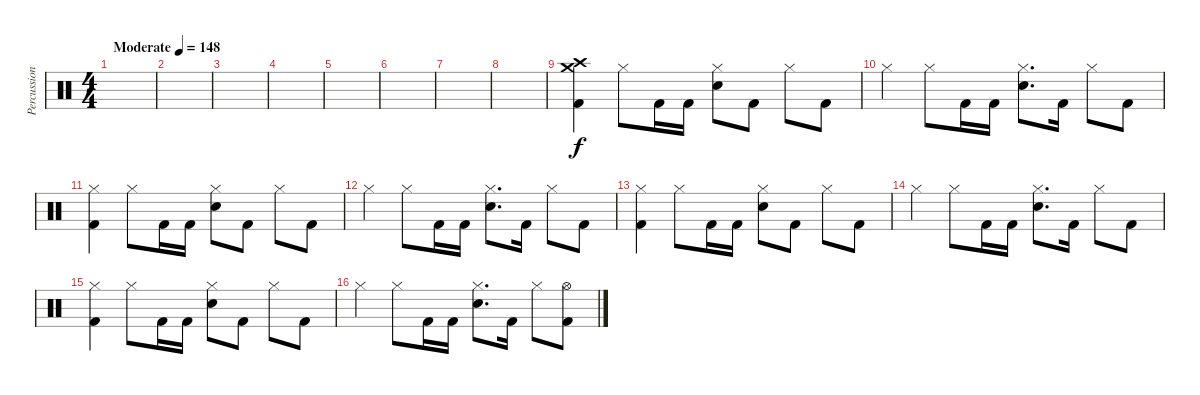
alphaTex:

\track ("Percussion" "Percussion") {instrument percussion}
\staff {score}
\articulation defaults
\ts (4 4)
\tempo (148 "Moderate")
\clef neutral
\ks c
|
|
|
|
|
|
|
|
("Crash high (hit)" "Crash medium (hit)" "Kick (hit) 2").4 "Hi-Hat (closed)".8 "Kick (hit) 2".16 "Kick (hit) 2".16 ("Hi-Hat (closed)" "Electric Snare (hit)").8 "Kick (hit) 2".8 "Hi-Hat (closed)".8 "Kick (hit) 2".8 |
"Hi-Hat (closed)".4 "Hi-Hat (closed)".8 "Kick (hit) 2".16 "Kick (hit) 2".16 ("Hi-Hat (closed)" "Electric Snare (hit)").8{d} "Kick (hit) 2".16 "Hi-Hat (closed)".8 "Kick (hit) 2".8 |
("Hi-Hat (closed)" "Kick (hit) 2").4 "Hi-Hat (closed)".8 "Kick (hit) 2".16 "Kick (hit) 2".16 ("Hi-Hat (closed)" "Electric Snare (hit)").8 "Kick (hit) 2".8 "Hi-Hat (closed)".8 "Kick (hit) 2".8 |
"Hi-Hat (closed)".4 "Hi-Hat (closed)".8 "Kick (hit) 2".16 "Kick (hit) 2".16 ("Hi-Hat (closed)" "Electric Snare (hit)").8{d} "Kick (hit) 2".16 "Hi-Hat (closed)".8 "Kick (hit) 2".8 |
("Hi-Hat (closed)" "Kick (hit) 2").4 "Hi-Hat (closed)".8 "Kick (hit) 2".16 "Kick (hit) 2".16 ("Hi-Hat (closed)" "Electric Snare (hit)").8 "Kick (hit) 2".8 "Hi-Hat (closed)".8 "Kick (hit) 2".8 |
"Hi-Hat (closed)".4 "Hi-Hat (closed)".8 "Kick (hit) 2".16 "Kick (hit) 2".16 ("Hi-Hat (closed)" "Electric Snare (hit)").8{d} "Kick (hit) 2".16 "Hi-Hat (closed)".8 "Kick (hit) 2".8 |
("Hi-Hat (closed)" "Kick (hit) 2").4 "Hi-Hat (closed)".8 "Kick (hit) 2".16 "Kick (hit) 2".16 ("Hi-Hat (closed)" "Electric Snare (hit)").8 "Kick (hit) 2".8 "Hi-Hat (closed)".8 "Kick (hit) 2".8 |
"Hi-Hat (closed)".4 "Hi-Hat (closed)".8 "Kick (hit) 2".16 "Kick (hit) 2".16 ("Hi-Hat (closed)" "Electric Snare (hit)").8{d} "Kick (hit) 2".16 "Hi-Hat (closed)".8 ("Hi-Hat (open)" "Kick (hit) 2").8
